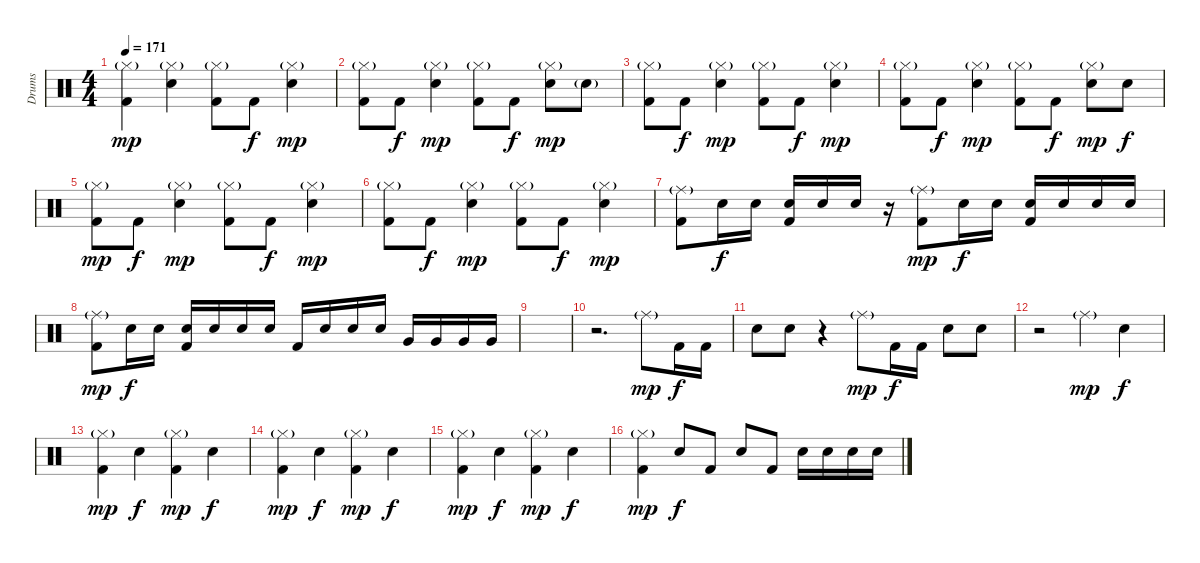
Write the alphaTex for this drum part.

\track ("Drums" "Drums") {instrument percussion}
\staff {score}
\articulation defaults
\ts (4 4)
\tempo 171
\clef neutral
\ks c
("Hi-Hat (closed)"{g} "Kick (hit) 2").4{dy mp} ("Hi-Hat (closed)"{g} "Electric Snare (hit)").4 ("Hi-Hat (closed)"{g} "Kick (hit) 2").8 "Kick (hit) 2".8{dy f} ("Hi-Hat (closed)"{g} "Electric Snare (hit)").4{dy mp} |
("Hi-Hat (closed)"{g} "Kick (hit) 2").8 "Kick (hit) 2".8{dy f} ("Hi-Hat (closed)"{g} "Electric Snare (hit)").4{dy mp} ("Hi-Hat (closed)"{g} "Kick (hit) 2").8 "Kick (hit) 2".8{dy f} ("Hi-Hat (closed)"{g} "Electric Snare (hit)").8{dy mp} "Electric Snare (hit)"{g}.8 |
("Hi-Hat (closed)"{g} "Kick (hit) 2").8 "Kick (hit) 2".8{dy f} ("Hi-Hat (closed)"{g} "Electric Snare (hit)").4{dy mp} ("Hi-Hat (closed)"{g} "Kick (hit) 2").8 "Kick (hit) 2".8{dy f} ("Hi-Hat (closed)"{g} "Electric Snare (hit)").4{dy mp} |
("Hi-Hat (closed)"{g} "Kick (hit) 2").8 "Kick (hit) 2".8{dy f} ("Hi-Hat (closed)"{g} "Electric Snare (hit)").4{dy mp} ("Hi-Hat (closed)"{g} "Kick (hit) 2").8 "Kick (hit) 2".8{dy f} ("Hi-Hat (closed)"{g} "Electric Snare (hit)").8{dy mp} "Electric Snare (hit)".8{dy f} |
("Hi-Hat (closed)"{g} "Kick (hit) 2").8{dy mp} "Kick (hit) 2".8{dy f} ("Hi-Hat (closed)"{g} "Electric Snare (hit)").4{dy mp} ("Hi-Hat (closed)"{g} "Kick (hit) 2").8 "Kick (hit) 2".8{dy f} ("Hi-Hat (closed)"{g} "Electric Snare (hit)").4{dy mp} |
("Hi-Hat (closed)"{g} "Kick (hit) 2").8 "Kick (hit) 2".8{dy f} ("Hi-Hat (closed)"{g} "Electric Snare (hit)").4{dy mp} ("Hi-Hat (closed)"{g} "Kick (hit) 2").8 "Kick (hit) 2".8{dy f} ("Hi-Hat (closed)"{g} "Electric Snare (hit)").4{dy mp} |
("Ride (middle)"{g} "Kick (hit) 2").8 "Electric Snare (hit)".16{dy f} "Electric Snare (hit)".16 ("Electric Snare (hit)" "Kick (hit) 2").16 "Electric Snare (hit)".16 "Electric Snare (hit)".16 r.16 ("Ride (middle)"{g} "Kick (hit) 2").8{dy mp} "Electric Snare (hit)".16{dy f} "Electric Snare (hit)".16 ("Electric Snare (hit)" "Kick (hit) 2").16 "Electric Snare (hit)".16 "Electric Snare (hit)".16 "Electric Snare (hit)".16 |
("Ride (middle)"{g} "Kick (hit) 2").8{dy mp} "Electric Snare (hit)".16{dy f} "Electric Snare (hit)".16 ("Electric Snare (hit)" "Kick (hit) 2").16 "Electric Snare (hit)".16 "Electric Snare (hit)".16 "Electric Snare (hit)".16 "Kick (hit) 2".16 "Electric Snare (hit)".16 "Electric Snare (hit)".16 "Electric Snare (hit)".16 "Very Low Tom (hit)".16 "Very Low Tom (hit)".16 "Very Low Tom (hit)".16 "Very Low Tom (hit)".16 |
|
r.2{d} "Ride (middle)"{g}.8{dy mp} "Kick (hit) 2".16{dy f} "Kick (hit) 2".16 |
"Electric Snare (hit)".8 "Electric Snare (hit)".8 r.4 "Ride (middle)"{g}.8{dy mp} "Kick (hit) 2".16{dy f} "Kick (hit) 2".16 "Electric Snare (hit)".8 "Electric Snare (hit)".8 |
r.2 "Ride (middle)"{g}.4{dy mp} "Electric Snare (hit)".4{dy f} |
("Hi-Hat (closed)"{g} "Kick (hit) 2").4{dy mp} "Electric Snare (hit)".4{dy f} ("Hi-Hat (closed)"{g} "Kick (hit) 2").4{dy mp} "Electric Snare (hit)".4{dy f} |
("Hi-Hat (closed)"{g} "Kick (hit) 2").4{dy mp} "Electric Snare (hit)".4{dy f} ("Hi-Hat (closed)"{g} "Kick (hit) 2").4{dy mp} "Electric Snare (hit)".4{dy f} |
("Hi-Hat (closed)"{g} "Kick (hit) 2").4{dy mp} "Electric Snare (hit)".4{dy f} ("Hi-Hat (closed)"{g} "Kick (hit) 2").4{dy mp} "Electric Snare (hit)".4{dy f} |
("Hi-Hat (closed)"{g} "Kick (hit) 2").4{dy mp} "Electric Snare (hit)".8{dy f} "Kick (hit) 2".8 "Electric Snare (hit)".8 "Kick (hit) 2".8 "Electric Snare (hit)".16 "Electric Snare (hit)".16 "Electric Snare (hit)".16 "Electric Snare (hit)".16
